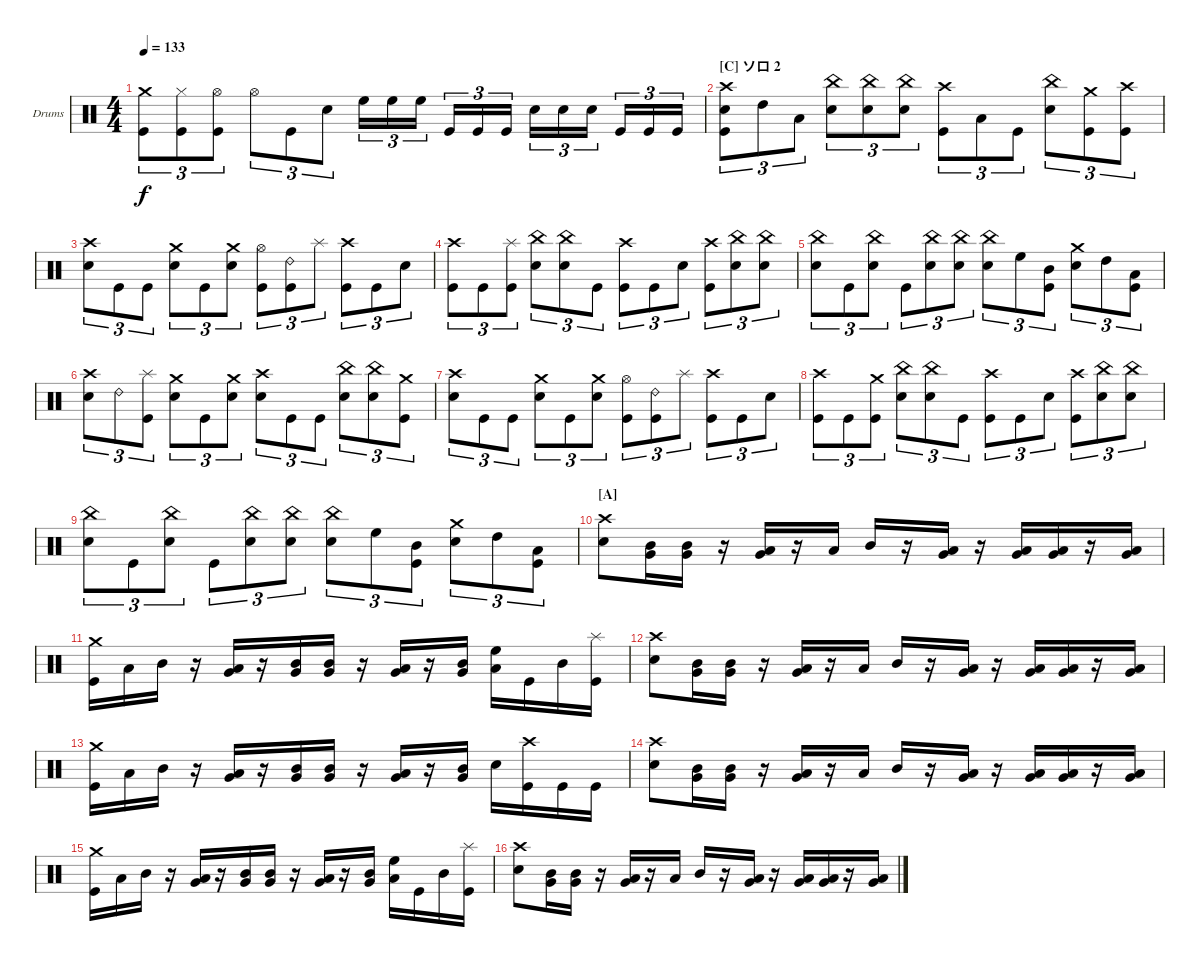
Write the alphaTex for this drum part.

\bracketExtendMode groupsimilarinstruments
\firstSystemTrackNameOrientation horizontal
\otherSystemsTrackNameOrientation horizontal
\track ("Ben Kazenoff" "Drums") {instrument percussion}
\staff {score}
\articulation defaults
\ts (4 4)
\tempo 133
\clef neutral
\ks c
("Crash medium (hit)" "Kick (hit)").8{tu (3 2) dy f} ("Kick (hit)" "Hi-Hat (closed)").8{tu (3 2)} ("Kick (hit)" "Hi-Hat (open)").8{tu (3 2)} "Hi-Hat (open)".8{tu (3 2)} "Kick (hit)".8{tu (3 2)} "Snare (hit) 2".8{tu (3 2)} "High Floor Tom (hit)".16{tu (3 2)} "High Floor Tom (hit)".16{tu (3 2)} "High Floor Tom (hit)".16{tu (3 2)} "Kick (hit)".16{tu (3 2)} "Kick (hit)".16{tu (3 2)} "Kick (hit)".16{tu (3 2)} "Snare (hit) 2".16{tu (3 2)} "Snare (hit) 2".16{tu (3 2)} "Snare (hit) 2".16{tu (3 2)} "Kick (hit)".16{tu (3 2)} "Kick (hit)".16{tu (3 2)} "Kick (hit)".16{tu (3 2)} |
\section ("C" "ソロ 2")
("Crash high (hit)" "Snare (hit) 2" "Kick (hit)").8{tu (3 2)} "High Tom (hit)".8{tu (3 2)} "Low Tom (hit)".8{tu (3 2)} ("Snare (hit) 2" "China (hit)").8{tu (3 2)} ("Snare (hit) 2" "China (hit)").8{tu (3 2)} ("Snare (hit) 2" "China (hit)").8{tu (3 2)} ("Kick (hit)" "Crash high (hit)").8{tu (3 2)} "Low Tom (hit)".8{tu (3 2)} "Kick (hit)".8{tu (3 2)} ("Snare (hit) 2" "China (hit)").8{tu (3 2)} ("Crash medium (hit)" "Kick (hit)").8{tu (3 2)} ("Crash high (hit)" "Kick (hit)").8{tu (3 2)} |
("Crash high (hit)" "Snare (hit) 2").8{tu (3 2)} "Kick (hit)".8{tu (3 2)} "Kick (hit)".8{tu (3 2)} ("Snare (hit) 2" "Crash medium (hit)").8{tu (3 2)} "Kick (hit)".8{tu (3 2)} ("Snare (hit) 2" "Crash medium (hit)").8{tu (3 2)} ("Hi-Hat (open)" "Kick (hit)").8{tu (3 2)} ("Ride (bell) 2" "Kick (hit)").8{tu (3 2)} "Splash (hit)".8{tu (3 2)} ("Crash high (hit)" "Kick (hit)").8{tu (3 2)} "Kick (hit)".8{tu (3 2)} "Snare (hit) 2".8{tu (3 2)} |
("Kick (hit)" "Crash high (hit)").8{tu (3 2)} "Kick (hit)".8{tu (3 2)} ("Kick (hit)" "Splash (hit)").8{tu (3 2)} ("Snare (hit) 2" "China (hit)").8{tu (3 2)} ("Snare (hit) 2" "China (hit)").8{tu (3 2)} "Kick (hit)".8{tu (3 2)} ("Kick (hit)" "Crash high (hit)").8{tu (3 2)} "Kick (hit)".8{tu (3 2)} "Snare (hit) 2".8{tu (3 2)} ("Kick (hit)" "Crash high (hit)").8{tu (3 2)} ("Snare (hit) 2" "China (hit)").8{tu (3 2)} ("Snare (hit) 2" "China (hit)").8{tu (3 2)} |
("China (hit)" "Snare (hit) 2").8{tu (3 2)} "Kick (hit)".8{tu (3 2)} ("Snare (hit) 2" "China (hit)").8{tu (3 2)} "Kick (hit)".8{tu (3 2)} ("Snare (hit) 2" "China (hit)").8{tu (3 2)} ("Snare (hit) 2" "China (hit)").8{tu (3 2)} ("China (hit)" "Snare (hit) 2").8{tu (3 2)} "High Floor Tom (hit)".8{tu (3 2)} ("Mid Tom (hit)" "Kick (hit)").8{tu (3 2)} ("Crash medium (hit)" "Snare (hit) 2").8{tu (3 2)} "High Tom (hit)".8{tu (3 2)} ("Low Tom (hit)" "Kick (hit)").8{tu (3 2)} |
("Snare (hit) 2" "Crash high (hit)").8{tu (3 2)} "Ride (bell) 2".8{tu (3 2)} ("Splash (hit)" "Kick (hit)").8{tu (3 2)} ("Crash medium (hit)" "Snare (hit) 2").8{tu (3 2)} "Kick (hit)".8{tu (3 2)} ("Crash medium (hit)" "Snare (hit) 2").8{tu (3 2)} ("Crash high (hit)" "Snare (hit) 2").8{tu (3 2)} "Kick (hit)".8{tu (3 2)} "Kick (hit)".8{tu (3 2)} ("China (hit)" "Snare (hit) 2").8{tu (3 2)} ("China (hit)" "Snare (hit) 2").8{tu (3 2)} ("Crash medium (hit)" "Kick (hit)").8{tu (3 2)} |
("Crash high (hit)" "Snare (hit) 2").8{tu (3 2)} "Kick (hit)".8{tu (3 2)} "Kick (hit)".8{tu (3 2)} ("Snare (hit) 2" "Crash medium (hit)").8{tu (3 2)} "Kick (hit)".8{tu (3 2)} ("Snare (hit) 2" "Crash medium (hit)").8{tu (3 2)} ("Hi-Hat (open)" "Kick (hit)").8{tu (3 2)} ("Ride (bell) 2" "Kick (hit)").8{tu (3 2)} "Splash (hit)".8{tu (3 2)} ("Crash high (hit)" "Kick (hit)").8{tu (3 2)} "Kick (hit)".8{tu (3 2)} "Snare (hit) 2".8{tu (3 2)} |
("Kick (hit)" "Crash high (hit)").8{tu (3 2)} "Kick (hit)".8{tu (3 2)} ("Kick (hit)" "Crash medium (hit)").8{tu (3 2)} ("Snare (hit) 2" "China (hit)").8{tu (3 2)} ("Snare (hit) 2" "China (hit)").8{tu (3 2)} "Kick (hit)".8{tu (3 2)} ("Kick (hit)" "Crash high (hit)").8{tu (3 2)} "Kick (hit)".8{tu (3 2)} "Snare (hit) 2".8{tu (3 2)} ("Kick (hit)" "Crash high (hit)").8{tu (3 2)} ("Snare (hit) 2" "China (hit)").8{tu (3 2)} ("Snare (hit) 2" "China (hit)").8{tu (3 2)} |
("China (hit)" "Snare (hit) 2").8{tu (3 2)} "Kick (hit)".8{tu (3 2)} ("Snare (hit) 2" "China (hit)").8{tu (3 2)} "Kick (hit)".8{tu (3 2)} ("Snare (hit) 2" "China (hit)").8{tu (3 2)} ("Snare (hit) 2" "China (hit)").8{tu (3 2)} ("China (hit)" "Snare (hit) 2").8{tu (3 2)} "High Floor Tom (hit)".8{tu (3 2)} ("Mid Tom (hit)" "Kick (hit)").8{tu (3 2)} ("Crash medium (hit)" "Snare (hit) 2").8{tu (3 2)} "High Tom (hit)".8{tu (3 2)} ("Low Tom (hit)" "Kick (hit)").8{tu (3 2)} |
\section ("A" "")
("Crash high (hit)" "Snare (hit) 2").8 ("Mid Tom (hit)" "Very Low Tom (hit)").16 ("Mid Tom (hit)" "Very Low Tom (hit)").16 r.16 ("Very Low Tom (hit)" "Low Tom (hit)").16 r.16 "Low Tom (hit)".16 "Mid Tom (hit)".16 r.16 ("Low Tom (hit)" "Very Low Tom (hit)").16 r.16 ("Low Tom (hit)" "Very Low Tom (hit)").16 ("Low Tom (hit)" "Very Low Tom (hit)").16 r.16 ("Low Tom (hit)" "Very Low Tom (hit)").16 |
("Crash medium (hit)" "Kick (hit)").16 "Low Tom (hit)".16 "Mid Tom (hit)".16 r.16 ("Low Tom (hit)" "Very Low Tom (hit)").16 r.16 ("Mid Tom (hit)" "Very Low Tom (hit)").16 ("Mid Tom (hit)" "Very Low Tom (hit)").16 r.16 ("Low Tom (hit)" "Very Low Tom (hit)").16 r.16 ("Mid Tom (hit)" "Very Low Tom (hit)").16 ("High Floor Tom (hit)" "Low Tom (hit)").16 "Kick (hit)".16 "Mid Tom (hit)".16 ("Splash (hit)" "Kick (hit)").16 |
("Crash high (hit)" "Snare (hit) 2").8 ("Mid Tom (hit)" "Very Low Tom (hit)").16 ("Mid Tom (hit)" "Very Low Tom (hit)").16 r.16 ("Very Low Tom (hit)" "Low Tom (hit)").16 r.16 "Low Tom (hit)".16 "Mid Tom (hit)".16 r.16 ("Low Tom (hit)" "Very Low Tom (hit)").16 r.16 ("Low Tom (hit)" "Very Low Tom (hit)").16 ("Low Tom (hit)" "Very Low Tom (hit)").16 r.16 ("Low Tom (hit)" "Very Low Tom (hit)").16 |
("Crash medium (hit)" "Kick (hit)").16 "Low Tom (hit)".16 "Mid Tom (hit)".16 r.16 ("Low Tom (hit)" "Very Low Tom (hit)").16 r.16 ("Mid Tom (hit)" "Very Low Tom (hit)").16 ("Mid Tom (hit)" "Very Low Tom (hit)").16 r.16 ("Low Tom (hit)" "Very Low Tom (hit)").16 r.16 ("Mid Tom (hit)" "Very Low Tom (hit)").16 "Snare (hit) 2".16 ("Crash high (hit)" "Kick (hit)").16 "Kick (hit)".16 "Kick (hit)".16 |
("Crash high (hit)" "Snare (hit) 2").8 ("Mid Tom (hit)" "Very Low Tom (hit)").16 ("Mid Tom (hit)" "Very Low Tom (hit)").16 r.16 ("Very Low Tom (hit)" "Low Tom (hit)").16 r.16 "Low Tom (hit)".16 "Mid Tom (hit)".16 r.16 ("Low Tom (hit)" "Very Low Tom (hit)").16 r.16 ("Low Tom (hit)" "Very Low Tom (hit)").16 ("Low Tom (hit)" "Very Low Tom (hit)").16 r.16 ("Low Tom (hit)" "Very Low Tom (hit)").16 |
("Crash medium (hit)" "Kick (hit)").16 "Low Tom (hit)".16 "Mid Tom (hit)".16 r.16 ("Low Tom (hit)" "Very Low Tom (hit)").16 r.16 ("Mid Tom (hit)" "Very Low Tom (hit)").16 ("Mid Tom (hit)" "Very Low Tom (hit)").16 r.16 ("Low Tom (hit)" "Very Low Tom (hit)").16 r.16 ("Mid Tom (hit)" "Very Low Tom (hit)").16 ("High Floor Tom (hit)" "Low Tom (hit)").16 "Kick (hit)".16 "Mid Tom (hit)".16 ("Splash (hit)" "Kick (hit)").16 |
("Crash high (hit)" "Snare (hit) 2").8 ("Mid Tom (hit)" "Very Low Tom (hit)").16 ("Mid Tom (hit)" "Very Low Tom (hit)").16 r.16 ("Very Low Tom (hit)" "Low Tom (hit)").16 r.16 "Low Tom (hit)".16 "Mid Tom (hit)".16 r.16 ("Low Tom (hit)" "Very Low Tom (hit)").16 r.16 ("Low Tom (hit)" "Very Low Tom (hit)").16 ("Low Tom (hit)" "Very Low Tom (hit)").16 r.16 ("Low Tom (hit)" "Very Low Tom (hit)").16
